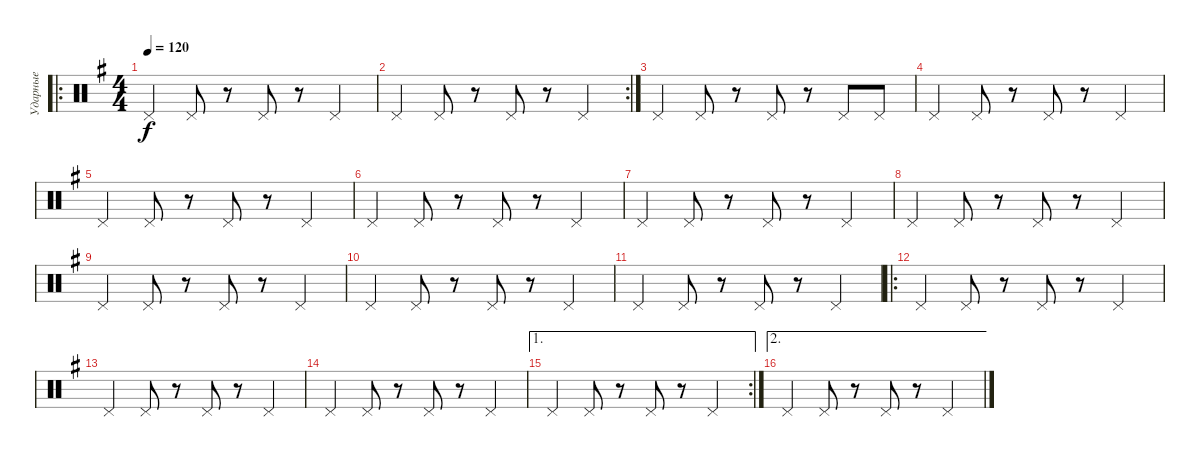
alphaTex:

\track ("Ударные" "Ударные") {instrument percussion}
\staff {score}
\articulation defaults
\ro
\ts (4 4)
\tempo 120
\clef neutral
\ks g "Pedal Hi-Hat (hit)".4{dy f} "Pedal Hi-Hat (hit)".8
r.8 "Pedal Hi-Hat (hit)".8 r.8 "Pedal Hi-Hat (hit)".4 |
\rc 2 "Pedal Hi-Hat (hit)".4 "Pedal Hi-Hat (hit)".8
r.8 "Pedal Hi-Hat (hit)".8 r.8 "Pedal Hi-Hat (hit)".4 |
"Pedal Hi-Hat (hit)".4 "Pedal Hi-Hat (hit)".8 r.8 "Pedal Hi-Hat (hit)".8 r.8 "Pedal Hi-Hat (hit)".8 "Pedal Hi-Hat (hit)".8 |
"Pedal Hi-Hat (hit)".4 "Pedal Hi-Hat (hit)".8 r.8 "Pedal Hi-Hat (hit)".8 r.8 "Pedal Hi-Hat (hit)".4 |
"Pedal Hi-Hat (hit)".4 "Pedal Hi-Hat (hit)".8 r.8 "Pedal Hi-Hat (hit)".8 r.8 "Pedal Hi-Hat (hit)".4 |
"Pedal Hi-Hat (hit)".4 "Pedal Hi-Hat (hit)".8 r.8 "Pedal Hi-Hat (hit)".8 r.8 "Pedal Hi-Hat (hit)".4 |
"Pedal Hi-Hat (hit)".4 "Pedal Hi-Hat (hit)".8 r.8 "Pedal Hi-Hat (hit)".8 r.8 "Pedal Hi-Hat (hit)".4 |
"Pedal Hi-Hat (hit)".4 "Pedal Hi-Hat (hit)".8 r.8 "Pedal Hi-Hat (hit)".8 r.8 "Pedal Hi-Hat (hit)".4 |
"Pedal Hi-Hat (hit)".4 "Pedal Hi-Hat (hit)".8 r.8 "Pedal Hi-Hat (hit)".8 r.8 "Pedal Hi-Hat (hit)".4 |
"Pedal Hi-Hat (hit)".4 "Pedal Hi-Hat (hit)".8 r.8 "Pedal Hi-Hat (hit)".8 r.8 "Pedal Hi-Hat (hit)".4 |
"Pedal Hi-Hat (hit)".4 "Pedal Hi-Hat (hit)".8 r.8 "Pedal Hi-Hat (hit)".8 r.8 "Pedal Hi-Hat (hit)".4 |
\ro "Pedal Hi-Hat (hit)".4 "Pedal Hi-Hat (hit)".8
r.8 "Pedal Hi-Hat (hit)".8 r.8 "Pedal Hi-Hat (hit)".4 |
"Pedal Hi-Hat (hit)".4 "Pedal Hi-Hat (hit)".8 r.8 "Pedal Hi-Hat (hit)".8 r.8 "Pedal Hi-Hat (hit)".4 |
"Pedal Hi-Hat (hit)".4 "Pedal Hi-Hat (hit)".8 r.8 "Pedal Hi-Hat (hit)".8 r.8 "Pedal Hi-Hat (hit)".4 |
\ae 1
\rc 2 "Pedal Hi-Hat (hit)".4 "Pedal Hi-Hat (hit)".8
r.8 "Pedal Hi-Hat (hit)".8 r.8 "Pedal Hi-Hat (hit)".4 |
\ae 2 "Pedal Hi-Hat (hit)".4 "Pedal Hi-Hat (hit)".8
r.8 "Pedal Hi-Hat (hit)".8 r.8 "Pedal Hi-Hat (hit)".4
